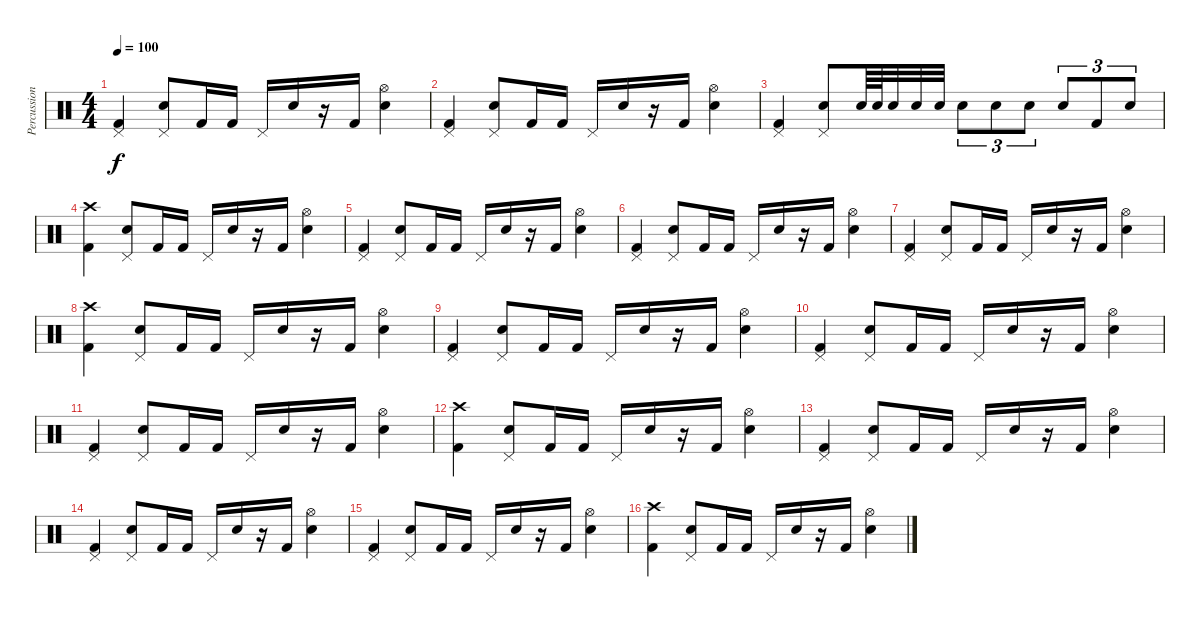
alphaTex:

\track ("Percussion" "Percussion") {instrument percussion}
\staff {score}
\articulation defaults
\ts (4 4)
\tempo 100
\clef neutral
\ks c
("Pedal Hi-Hat (hit)" "Kick (hit) 2").4{dy f} ("Pedal Hi-Hat (hit)" "Electric Snare (hit)").8 "Kick (hit) 2".16 "Kick (hit) 2".16 "Pedal Hi-Hat (hit)".16 "Electric Snare (hit)".16 r.16 "Kick (hit) 2".16 ("Hi-Hat (open)" "Electric Snare (hit)").4 |
("Pedal Hi-Hat (hit)" "Kick (hit) 2").4 ("Pedal Hi-Hat (hit)" "Electric Snare (hit)").8 "Kick (hit) 2".16 "Kick (hit) 2".16 "Pedal Hi-Hat (hit)".16 "Electric Snare (hit)".16 r.16 "Kick (hit) 2".16 ("Hi-Hat (open)" "Electric Snare (hit)").4 |
("Pedal Hi-Hat (hit)" "Kick (hit) 2").4 ("Pedal Hi-Hat (hit)" "Electric Snare (hit)").8 "Electric Snare (hit)".64 "Electric Snare (hit)".64 "Electric Snare (hit)".32 "Electric Snare (hit)".32 "Electric Snare (hit)".32 "Electric Snare (hit)".8{tu (3 2)} "Electric Snare (hit)".8{tu (3 2)} "Electric Snare (hit)".8{tu (3 2)} "Electric Snare (hit)".8{tu (3 2)} "Kick (hit) 2".8{tu (3 2)} "Electric Snare (hit)".8{tu (3 2)} |
("Crash high (hit)" "Kick (hit) 2").4 ("Pedal Hi-Hat (hit)" "Electric Snare (hit)").8 "Kick (hit) 2".16 "Kick (hit) 2".16 "Pedal Hi-Hat (hit)".16 "Electric Snare (hit)".16 r.16 "Kick (hit) 2".16 ("Hi-Hat (open)" "Electric Snare (hit)").4 |
("Pedal Hi-Hat (hit)" "Kick (hit) 2").4 ("Pedal Hi-Hat (hit)" "Electric Snare (hit)").8 "Kick (hit) 2".16 "Kick (hit) 2".16 "Pedal Hi-Hat (hit)".16 "Electric Snare (hit)".16 r.16 "Kick (hit) 2".16 ("Hi-Hat (open)" "Electric Snare (hit)").4 |
("Pedal Hi-Hat (hit)" "Kick (hit) 2").4 ("Pedal Hi-Hat (hit)" "Electric Snare (hit)").8 "Kick (hit) 2".16 "Kick (hit) 2".16 "Pedal Hi-Hat (hit)".16 "Electric Snare (hit)".16 r.16 "Kick (hit) 2".16 ("Hi-Hat (open)" "Electric Snare (hit)").4 |
("Pedal Hi-Hat (hit)" "Kick (hit) 2").4 ("Pedal Hi-Hat (hit)" "Electric Snare (hit)").8 "Kick (hit) 2".16 "Kick (hit) 2".16 "Pedal Hi-Hat (hit)".16 "Electric Snare (hit)".16 r.16 "Kick (hit) 2".16 ("Hi-Hat (open)" "Electric Snare (hit)").4 |
("Crash high (hit)" "Kick (hit) 2").4 ("Pedal Hi-Hat (hit)" "Electric Snare (hit)").8 "Kick (hit) 2".16 "Kick (hit) 2".16 "Pedal Hi-Hat (hit)".16 "Electric Snare (hit)".16 r.16 "Kick (hit) 2".16 ("Hi-Hat (open)" "Electric Snare (hit)").4 |
("Pedal Hi-Hat (hit)" "Kick (hit) 2").4 ("Pedal Hi-Hat (hit)" "Electric Snare (hit)").8 "Kick (hit) 2".16 "Kick (hit) 2".16 "Pedal Hi-Hat (hit)".16 "Electric Snare (hit)".16 r.16 "Kick (hit) 2".16 ("Hi-Hat (open)" "Electric Snare (hit)").4 |
("Pedal Hi-Hat (hit)" "Kick (hit) 2").4 ("Pedal Hi-Hat (hit)" "Electric Snare (hit)").8 "Kick (hit) 2".16 "Kick (hit) 2".16 "Pedal Hi-Hat (hit)".16 "Electric Snare (hit)".16 r.16 "Kick (hit) 2".16 ("Hi-Hat (open)" "Electric Snare (hit)").4 |
("Pedal Hi-Hat (hit)" "Kick (hit) 2").4 ("Pedal Hi-Hat (hit)" "Electric Snare (hit)").8 "Kick (hit) 2".16 "Kick (hit) 2".16 "Pedal Hi-Hat (hit)".16 "Electric Snare (hit)".16 r.16 "Kick (hit) 2".16 ("Hi-Hat (open)" "Electric Snare (hit)").4 |
("Crash high (hit)" "Kick (hit) 2").4 ("Pedal Hi-Hat (hit)" "Electric Snare (hit)").8 "Kick (hit) 2".16 "Kick (hit) 2".16 "Pedal Hi-Hat (hit)".16 "Electric Snare (hit)".16 r.16 "Kick (hit) 2".16 ("Hi-Hat (open)" "Electric Snare (hit)").4 |
("Pedal Hi-Hat (hit)" "Kick (hit) 2").4 ("Pedal Hi-Hat (hit)" "Electric Snare (hit)").8 "Kick (hit) 2".16 "Kick (hit) 2".16 "Pedal Hi-Hat (hit)".16 "Electric Snare (hit)".16 r.16 "Kick (hit) 2".16 ("Hi-Hat (open)" "Electric Snare (hit)").4 |
("Pedal Hi-Hat (hit)" "Kick (hit) 2").4 ("Pedal Hi-Hat (hit)" "Electric Snare (hit)").8 "Kick (hit) 2".16 "Kick (hit) 2".16 "Pedal Hi-Hat (hit)".16 "Electric Snare (hit)".16 r.16 "Kick (hit) 2".16 ("Hi-Hat (open)" "Electric Snare (hit)").4 |
("Pedal Hi-Hat (hit)" "Kick (hit) 2").4 ("Pedal Hi-Hat (hit)" "Electric Snare (hit)").8 "Kick (hit) 2".16 "Kick (hit) 2".16 "Pedal Hi-Hat (hit)".16 "Electric Snare (hit)".16 r.16 "Kick (hit) 2".16 ("Hi-Hat (open)" "Electric Snare (hit)").4 |
("Crash high (hit)" "Kick (hit) 2").4 ("Pedal Hi-Hat (hit)" "Electric Snare (hit)").8 "Kick (hit) 2".16 "Kick (hit) 2".16 "Pedal Hi-Hat (hit)".16 "Electric Snare (hit)".16 r.16 "Kick (hit) 2".16 ("Hi-Hat (open)" "Electric Snare (hit)").4
